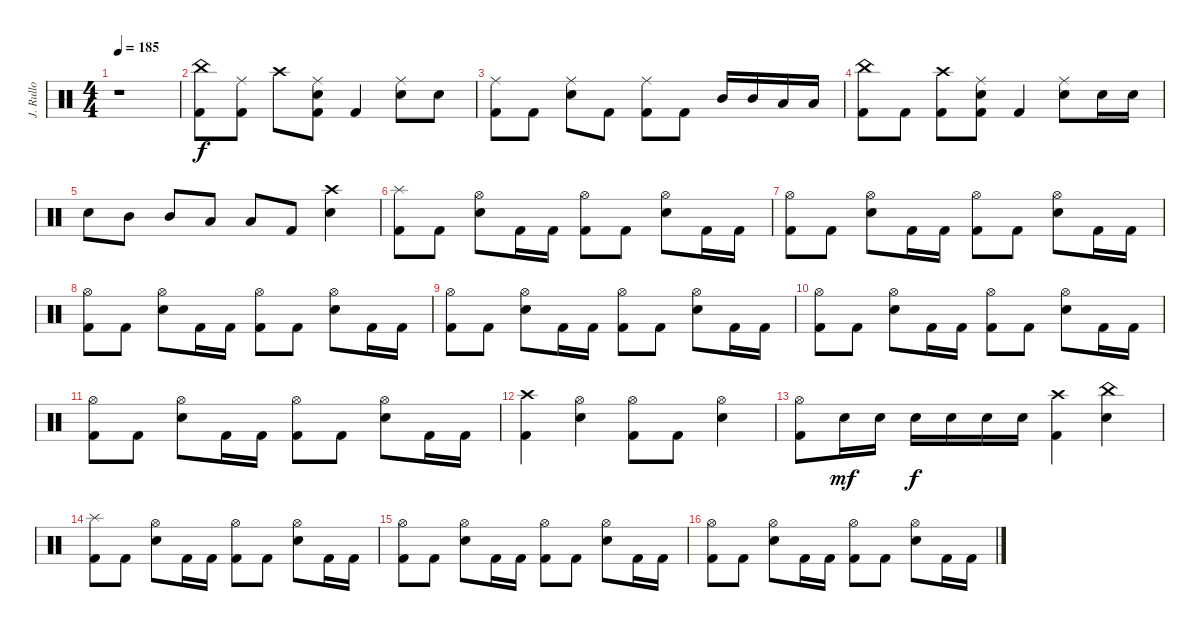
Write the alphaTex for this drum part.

\track ("J. Rullo" "J. Rullo") {instrument percussion}
\staff {score}
\articulation defaults
\ts (4 4)
\tempo 185
\clef neutral
\ks c
r.1{dy f} |
("China (hit)" "Kick (hit) 2").8 ("Ride (middle)" "Kick (hit) 2").8 "Crash high (hit)".8 ("Ride (middle)" "Snare (hit) 2" "Kick (hit) 2").8 "Kick (hit) 2".4 ("Ride (middle)" "Snare (hit) 2").8 "Snare (hit) 2".8 |
("Ride (middle)" "Kick (hit) 2").8 "Kick (hit) 2".8 ("Ride (middle)" "Snare (hit) 2").8 "Kick (hit) 2".8 ("Ride (middle)" "Kick (hit) 2").8 "Kick (hit) 2".8 "Mid Tom (hit)".16 "Mid Tom (hit)".16 "Low Tom (hit)".16 "Low Tom (hit)".16 |
("China (hit)" "Kick (hit) 2").8 "Kick (hit) 2".8 ("Crash high (hit)" "Kick (hit) 2").8 ("Ride (middle)" "Snare (hit) 2" "Kick (hit) 2").8 "Kick (hit) 2".4 ("Ride (middle)" "Snare (hit) 2").8 "Snare (hit) 2".16 "Snare (hit) 2".16 |
"Snare (hit) 2".8 "Mid Tom (hit)".8 "Mid Tom (hit)".8 "Low Tom (hit)".8 "Low Tom (hit)".8 "Kick (hit) 2".8 ("Crash high (hit)" "Snare (hit) 2").4 |
("Splash (hit)" "Kick (hit) 2").8 "Kick (hit) 2".8 ("Hi-Hat (open)" "Snare (hit) 2").8 "Kick (hit) 2".16 "Kick (hit) 2".16 ("Hi-Hat (open)" "Kick (hit) 2").8 "Kick (hit) 2".8 ("Hi-Hat (open)" "Snare (hit) 2").8 "Kick (hit) 2".16 "Kick (hit) 2".16 |
("Hi-Hat (open)" "Kick (hit) 2").8 "Kick (hit) 2".8 ("Hi-Hat (open)" "Snare (hit) 2").8 "Kick (hit) 2".16 "Kick (hit) 2".16 ("Hi-Hat (open)" "Kick (hit) 2").8 "Kick (hit) 2".8 ("Hi-Hat (open)" "Snare (hit) 2").8 "Kick (hit) 2".16 "Kick (hit) 2".16 |
("Hi-Hat (open)" "Kick (hit) 2").8 "Kick (hit) 2".8 ("Hi-Hat (open)" "Snare (hit) 2").8 "Kick (hit) 2".16 "Kick (hit) 2".16 ("Hi-Hat (open)" "Kick (hit) 2").8 "Kick (hit) 2".8 ("Hi-Hat (open)" "Snare (hit) 2").8 "Kick (hit) 2".16 "Kick (hit) 2".16 |
("Hi-Hat (open)" "Kick (hit) 2").8 "Kick (hit) 2".8 ("Hi-Hat (open)" "Snare (hit) 2").8 "Kick (hit) 2".16 "Kick (hit) 2".16 ("Hi-Hat (open)" "Kick (hit) 2").8 "Kick (hit) 2".8 ("Hi-Hat (open)" "Snare (hit) 2").8 "Kick (hit) 2".16 "Kick (hit) 2".16 |
("Hi-Hat (open)" "Kick (hit) 2").8 "Kick (hit) 2".8 ("Hi-Hat (open)" "Snare (hit) 2").8 "Kick (hit) 2".16 "Kick (hit) 2".16 ("Hi-Hat (open)" "Kick (hit) 2").8 "Kick (hit) 2".8 ("Hi-Hat (open)" "Snare (hit) 2").8 "Kick (hit) 2".16 "Kick (hit) 2".16 |
("Hi-Hat (open)" "Kick (hit) 2").8 "Kick (hit) 2".8 ("Hi-Hat (open)" "Snare (hit) 2").8 "Kick (hit) 2".16 "Kick (hit) 2".16 ("Hi-Hat (open)" "Kick (hit) 2").8 "Kick (hit) 2".8 ("Hi-Hat (open)" "Snare (hit) 2").8 "Kick (hit) 2".16 "Kick (hit) 2".16 |
("Crash high (hit)" "Kick (hit) 2").4 ("Hi-Hat (open)" "Snare (hit) 2").4 ("Hi-Hat (open)" "Kick (hit) 2").8 "Kick (hit) 2".8 ("Hi-Hat (open)" "Snare (hit) 2").4 |
("Hi-Hat (open)" "Kick (hit) 2").8 "Snare (hit) 2".16{dy mf} "Snare (hit) 2".16 "Snare (hit) 2".16{dy f} "Snare (hit) 2".16 "Snare (hit) 2".16 "Snare (hit) 2".16 ("Crash high (hit)" "Kick (hit) 2").4 ("China (hit)" "Snare (hit) 2").4 |
("Splash (hit)" "Kick (hit) 2").8 "Kick (hit) 2".8 ("Hi-Hat (open)" "Snare (hit) 2").8 "Kick (hit) 2".16 "Kick (hit) 2".16 ("Hi-Hat (open)" "Kick (hit) 2").8 "Kick (hit) 2".8 ("Hi-Hat (open)" "Snare (hit) 2").8 "Kick (hit) 2".16 "Kick (hit) 2".16 |
("Hi-Hat (open)" "Kick (hit) 2").8 "Kick (hit) 2".8 ("Hi-Hat (open)" "Snare (hit) 2").8 "Kick (hit) 2".16 "Kick (hit) 2".16 ("Hi-Hat (open)" "Kick (hit) 2").8 "Kick (hit) 2".8 ("Hi-Hat (open)" "Snare (hit) 2").8 "Kick (hit) 2".16 "Kick (hit) 2".16 |
("Hi-Hat (open)" "Kick (hit) 2").8 "Kick (hit) 2".8 ("Hi-Hat (open)" "Snare (hit) 2").8 "Kick (hit) 2".16 "Kick (hit) 2".16 ("Hi-Hat (open)" "Kick (hit) 2").8 "Kick (hit) 2".8 ("Hi-Hat (open)" "Snare (hit) 2").8 "Kick (hit) 2".16 "Kick (hit) 2".16
